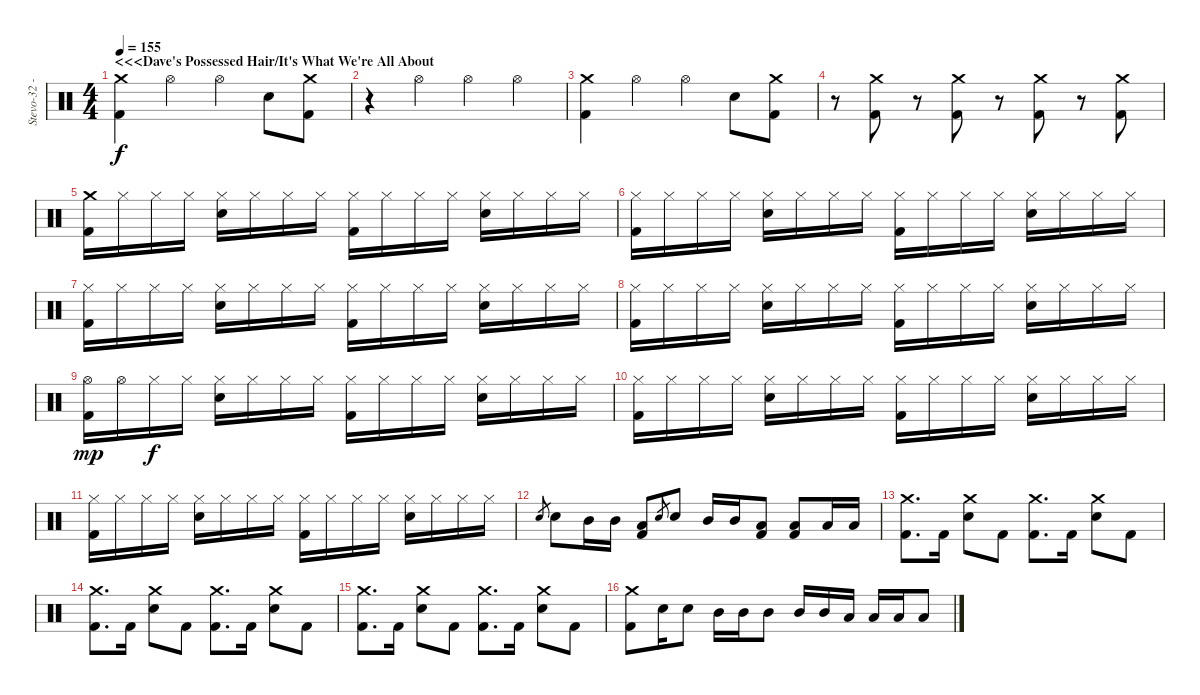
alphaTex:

\track ("Stevo-32 - Drums" "Stevo-32 -") {instrument percussion}
\staff {score}
\articulation defaults
\ts (4 4)
\section ("" "<<<Dave's Possessed Hair/It's What We're All About")
\tempo 155
\clef neutral
\ks c
("Crash medium (hit)" "Kick (hit) 2").4{dy f} "Hi-Hat (open)".4 "Hi-Hat (open)".4 "Electric Snare (hit)".8 ("Crash medium (hit)" "Kick (hit) 2").8 |
r.4 "Hi-Hat (open)".4 "Hi-Hat (open)".4 "Hi-Hat (open)".4 |
("Crash medium (hit)" "Kick (hit) 2").4 "Hi-Hat (open)".4 "Hi-Hat (open)".4 "Electric Snare (hit)".8 ("Crash medium (hit)" "Kick (hit) 2").8 |
r.8 ("Crash medium (hit)" "Kick (hit) 2").8 r.8 ("Crash medium (hit)" "Kick (hit) 2").8 r.8 ("Crash medium (hit)" "Kick (hit) 2").8 r.8 ("Crash medium (hit)" "Kick (hit) 2").8 |
("Crash medium (hit)" "Kick (hit) 2").16 "Hi-Hat (closed)".16 "Hi-Hat (closed)".16 "Hi-Hat (closed)".16 ("Hi-Hat (closed)" "Electric Snare (hit)").16 "Hi-Hat (closed)".16 "Hi-Hat (closed)".16 "Hi-Hat (closed)".16 ("Hi-Hat (closed)" "Kick (hit) 2").16 "Hi-Hat (closed)".16 "Hi-Hat (closed)".16 "Hi-Hat (closed)".16 ("Hi-Hat (closed)" "Electric Snare (hit)").16 "Hi-Hat (closed)".16 "Hi-Hat (closed)".16 "Hi-Hat (closed)".16 |
("Hi-Hat (closed)" "Kick (hit) 2").16 "Hi-Hat (closed)".16 "Hi-Hat (closed)".16 "Hi-Hat (closed)".16 ("Hi-Hat (closed)" "Electric Snare (hit)").16 "Hi-Hat (closed)".16 "Hi-Hat (closed)".16 "Hi-Hat (closed)".16 ("Hi-Hat (closed)" "Kick (hit) 2").16 "Hi-Hat (closed)".16 "Hi-Hat (closed)".16 "Hi-Hat (closed)".16 ("Hi-Hat (closed)" "Electric Snare (hit)").16 "Hi-Hat (closed)".16 "Hi-Hat (closed)".16 "Hi-Hat (closed)".16 |
("Hi-Hat (closed)" "Kick (hit) 2").16 "Hi-Hat (closed)".16 "Hi-Hat (closed)".16 "Hi-Hat (closed)".16 ("Hi-Hat (closed)" "Electric Snare (hit)").16 "Hi-Hat (closed)".16 "Hi-Hat (closed)".16 "Hi-Hat (closed)".16 ("Hi-Hat (closed)" "Kick (hit) 2").16 "Hi-Hat (closed)".16 "Hi-Hat (closed)".16 "Hi-Hat (closed)".16 ("Hi-Hat (closed)" "Electric Snare (hit)").16 "Hi-Hat (closed)".16 "Hi-Hat (closed)".16 "Hi-Hat (closed)".16 |
("Hi-Hat (closed)" "Kick (hit) 2").16 "Hi-Hat (closed)".16 "Hi-Hat (closed)".16 "Hi-Hat (closed)".16 ("Hi-Hat (closed)" "Electric Snare (hit)").16 "Hi-Hat (closed)".16 "Hi-Hat (closed)".16 "Hi-Hat (closed)".16 ("Hi-Hat (closed)" "Kick (hit) 2").16 "Hi-Hat (closed)".16 "Hi-Hat (closed)".16 "Hi-Hat (closed)".16 ("Hi-Hat (closed)" "Electric Snare (hit)").16 "Hi-Hat (closed)".16 "Hi-Hat (closed)".16 "Hi-Hat (closed)".16 |
("Hi-Hat (open)" "Kick (hit) 2").16{dy mp} "Hi-Hat (open)".16 "Hi-Hat (closed)".16{dy f} "Hi-Hat (closed)".16 ("Hi-Hat (closed)" "Electric Snare (hit)").16 "Hi-Hat (closed)".16 "Hi-Hat (closed)".16 "Hi-Hat (closed)".16 ("Hi-Hat (closed)" "Kick (hit) 2").16 "Hi-Hat (closed)".16 "Hi-Hat (closed)".16 "Hi-Hat (closed)".16 ("Hi-Hat (closed)" "Electric Snare (hit)").16 "Hi-Hat (closed)".16 "Hi-Hat (closed)".16 "Hi-Hat (closed)".16 |
("Hi-Hat (closed)" "Kick (hit) 2").16 "Hi-Hat (closed)".16 "Hi-Hat (closed)".16 "Hi-Hat (closed)".16 ("Hi-Hat (closed)" "Electric Snare (hit)").16 "Hi-Hat (closed)".16 "Hi-Hat (closed)".16 "Hi-Hat (closed)".16 ("Hi-Hat (closed)" "Kick (hit) 2").16 "Hi-Hat (closed)".16 "Hi-Hat (closed)".16 "Hi-Hat (closed)".16 ("Hi-Hat (closed)" "Electric Snare (hit)").16 "Hi-Hat (closed)".16 "Hi-Hat (closed)".16 "Hi-Hat (closed)".16 |
("Hi-Hat (closed)" "Kick (hit) 2").16 "Hi-Hat (closed)".16 "Hi-Hat (closed)".16 "Hi-Hat (closed)".16 ("Hi-Hat (closed)" "Electric Snare (hit)").16 "Hi-Hat (closed)".16 "Hi-Hat (closed)".16 "Hi-Hat (closed)".16 ("Hi-Hat (closed)" "Kick (hit) 2").16 "Hi-Hat (closed)".16 "Hi-Hat (closed)".16 "Hi-Hat (closed)".16 ("Hi-Hat (closed)" "Electric Snare (hit)").16 "Hi-Hat (closed)".16 "Hi-Hat (closed)".16 "Hi-Hat (closed)".16 |
"Electric Snare (hit)".8{gr} "Electric Snare (hit)".8 "Mid Tom (hit)".16 "Mid Tom (hit)".16 ("Low Tom (hit)" "Kick (hit) 2").8 "Electric Snare (hit)".8{gr} "Electric Snare (hit)".8 "Mid Tom (hit)".16 "Mid Tom (hit)".16 ("Low Tom (hit)" "Kick (hit) 2").8 ("Low Tom (hit)" "Kick (hit) 2").8 "Low Floor Tom (hit)".16 "Low Floor Tom (hit)".16 |
("Crash medium (hit)" "Kick (hit) 2").8{d} "Kick (hit) 2".16 ("Crash medium (hit)" "Electric Snare (hit)").8 "Kick (hit) 2".8 ("Crash medium (hit)" "Kick (hit) 2").8{d} "Kick (hit) 2".16 ("Crash medium (hit)" "Electric Snare (hit)").8 "Kick (hit) 2".8 |
("Crash medium (hit)" "Kick (hit) 2").8{d} "Kick (hit) 2".16 ("Crash medium (hit)" "Electric Snare (hit)").8 "Kick (hit) 2".8 ("Crash medium (hit)" "Kick (hit) 2").8{d} "Kick (hit) 2".16 ("Crash medium (hit)" "Electric Snare (hit)").8 "Kick (hit) 2".8 |
("Crash medium (hit)" "Kick (hit) 2").8{d} "Kick (hit) 2".16 ("Crash medium (hit)" "Electric Snare (hit)").8 "Kick (hit) 2".8 ("Crash medium (hit)" "Kick (hit) 2").8{d} "Kick (hit) 2".16 ("Crash medium (hit)" "Electric Snare (hit)").8 "Kick (hit) 2".8 |
("Crash medium (hit)" "Kick (hit) 2").8 "Electric Snare (hit)".16 "Electric Snare (hit)".8 "Mid Tom (hit)".16 "Mid Tom (hit)".16 "Mid Tom (hit)".8 "Mid Tom (hit)".16 "Mid Tom (hit)".16 "Low Tom (hit)".16 "Low Tom (hit)".16 "Low Floor Tom (hit)".16 "Low Floor Tom (hit)".8
